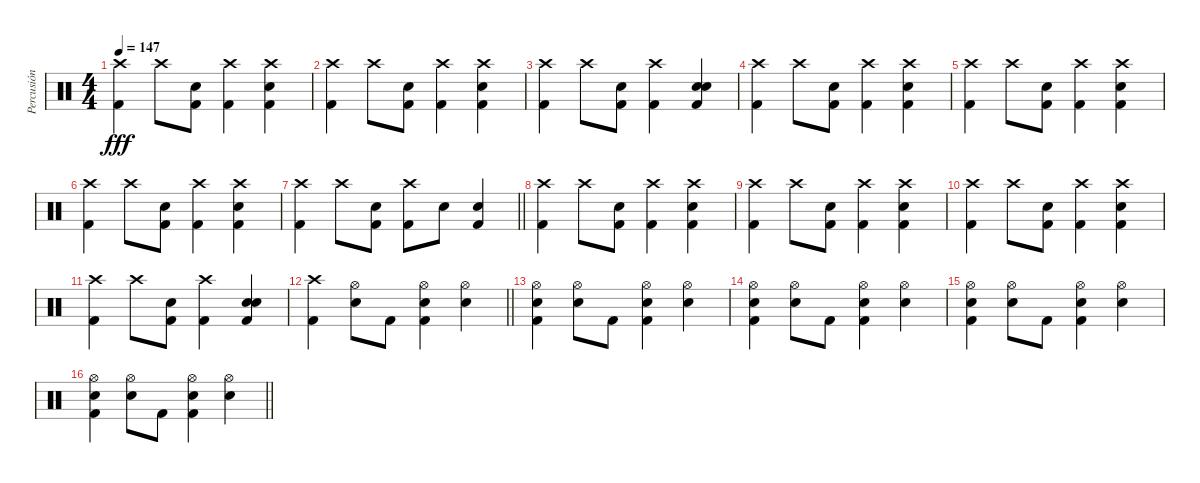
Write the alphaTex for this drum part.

\track ("Percusión" "Percusión") {instrument percussion}
\staff {score}
\articulation defaults
\ts (4 4)
\tempo 147
\clef neutral
\ks c
("Crash high (hit)" "Kick (hit) 2").4{dy fff} "Crash high (hit)".8 ("Electric Snare (hit)" "Kick (hit) 2").8 ("Crash high (hit)" "Kick (hit) 2").4 ("Crash high (hit)" "Electric Snare (hit)" "Kick (hit) 2").4 |
("Crash high (hit)" "Kick (hit) 2").4 "Crash high (hit)".8 ("Electric Snare (hit)" "Kick (hit) 2").8 ("Crash high (hit)" "Kick (hit) 2").4 ("Crash high (hit)" "Electric Snare (hit)" "Kick (hit) 2").4 |
("Crash high (hit)" "Kick (hit) 2").4 "Crash high (hit)".8 ("Electric Snare (hit)" "Kick (hit) 2").8 ("Crash high (hit)" "Kick (hit) 2").4 ("Electric Snare (hit)" "Electric Snare (hit)" "Kick (hit) 2").4{bd 240} |
("Crash high (hit)" "Kick (hit) 2").4 "Crash high (hit)".8 ("Electric Snare (hit)" "Kick (hit) 2").8 ("Crash high (hit)" "Kick (hit) 2").4 ("Crash high (hit)" "Electric Snare (hit)" "Kick (hit) 2").4 |
("Crash high (hit)" "Kick (hit) 2").4 "Crash high (hit)".8 ("Electric Snare (hit)" "Kick (hit) 2").8 ("Crash high (hit)" "Kick (hit) 2").4 ("Crash high (hit)" "Electric Snare (hit)" "Kick (hit) 2").4 |
("Crash high (hit)" "Kick (hit) 2").4 "Crash high (hit)".8 ("Electric Snare (hit)" "Kick (hit) 2").8 ("Crash high (hit)" "Kick (hit) 2").4 ("Crash high (hit)" "Electric Snare (hit)" "Kick (hit) 2").4 |
\barLineRight lightlight
("Crash high (hit)" "Kick (hit) 2").4 "Crash high (hit)".8 ("Electric Snare (hit)" "Kick (hit) 2").8 ("Crash high (hit)" "Kick (hit) 2").8 "Electric Snare (hit)".8 ("Electric Snare (hit)" "Kick (hit) 2").4 |
("Crash high (hit)" "Kick (hit) 2").4 "Crash high (hit)".8 ("Electric Snare (hit)" "Kick (hit) 2").8 ("Crash high (hit)" "Kick (hit) 2").4 ("Crash high (hit)" "Electric Snare (hit)" "Kick (hit) 2").4 |
("Crash high (hit)" "Kick (hit) 2").4 "Crash high (hit)".8 ("Electric Snare (hit)" "Kick (hit) 2").8 ("Crash high (hit)" "Kick (hit) 2").4 ("Crash high (hit)" "Electric Snare (hit)" "Kick (hit) 2").4 |
("Crash high (hit)" "Kick (hit) 2").4 "Crash high (hit)".8 ("Electric Snare (hit)" "Kick (hit) 2").8 ("Crash high (hit)" "Kick (hit) 2").4 ("Crash high (hit)" "Electric Snare (hit)" "Kick (hit) 2").4 |
("Crash high (hit)" "Kick (hit) 2").4 "Crash high (hit)".8 ("Electric Snare (hit)" "Kick (hit) 2").8 ("Crash high (hit)" "Kick (hit) 2").4 ("Electric Snare (hit)" "Electric Snare (hit)" "Kick (hit) 2").4{bd 240} |
\barLineRight lightlight
("Crash high (hit)" "Kick (hit) 2").4 ("Hi-Hat (open)" "Electric Snare (hit)").8 "Kick (hit) 2".8 ("Hi-Hat (open)" "Electric Snare (hit)" "Kick (hit) 2").4 ("Hi-Hat (open)" "Electric Snare (hit)").4 |
("Hi-Hat (open)" "Electric Snare (hit)" "Kick (hit) 2").4 ("Hi-Hat (open)" "Electric Snare (hit)").8 "Kick (hit) 2".8 ("Hi-Hat (open)" "Electric Snare (hit)" "Kick (hit) 2").4 ("Hi-Hat (open)" "Electric Snare (hit)").4 |
("Hi-Hat (open)" "Electric Snare (hit)" "Kick (hit) 2").4 ("Hi-Hat (open)" "Electric Snare (hit)").8 "Kick (hit) 2".8 ("Hi-Hat (open)" "Electric Snare (hit)" "Kick (hit) 2").4 ("Hi-Hat (open)" "Electric Snare (hit)").4 |
("Hi-Hat (open)" "Electric Snare (hit)" "Kick (hit) 2").4 ("Hi-Hat (open)" "Electric Snare (hit)").8 "Kick (hit) 2".8 ("Hi-Hat (open)" "Electric Snare (hit)" "Kick (hit) 2").4 ("Hi-Hat (open)" "Electric Snare (hit)").4 |
\barLineRight lightlight
("Hi-Hat (open)" "Electric Snare (hit)" "Kick (hit) 2").4 ("Hi-Hat (open)" "Electric Snare (hit)").8 "Kick (hit) 2".8 ("Hi-Hat (open)" "Electric Snare (hit)" "Kick (hit) 2").4 ("Hi-Hat (open)" "Electric Snare (hit)").4
